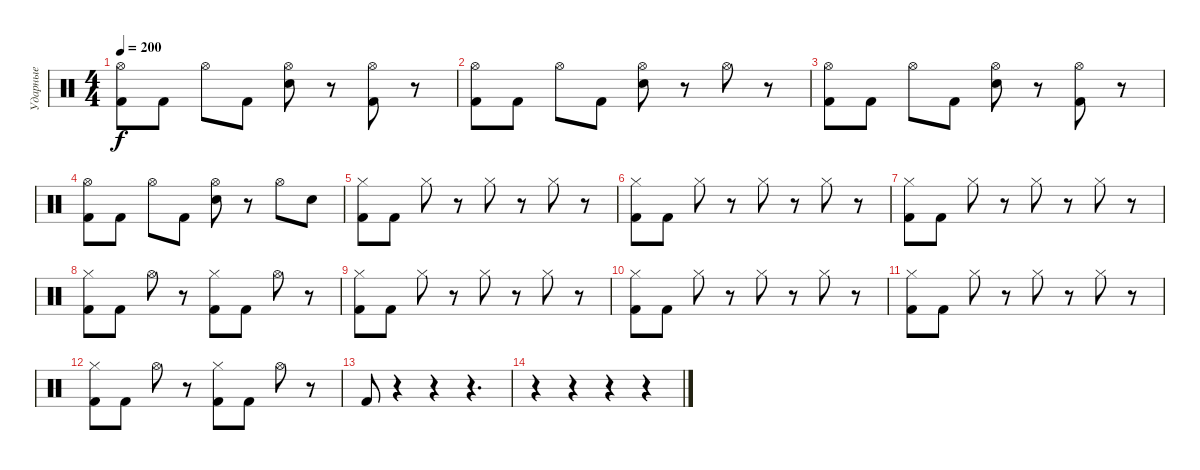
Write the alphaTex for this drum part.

\track ("Ударные" "Ударные") {instrument percussion}
\staff {score}
\articulation defaults
\ts (4 4)
\tempo 200
\clef neutral
\ks c
("Hi-Hat (open)" "Kick (hit) 2").8{dy f} "Kick (hit) 2".8 "Hi-Hat (open)".8 "Kick (hit) 2".8 ("Hi-Hat (open)" "Electric Snare (hit)").8 r.8 ("Hi-Hat (open)" "Kick (hit) 2").8 r.8 |
("Hi-Hat (open)" "Kick (hit) 2").8 "Kick (hit) 2".8 "Hi-Hat (open)".8 "Kick (hit) 2".8 ("Hi-Hat (open)" "Electric Snare (hit)").8 r.8 "Hi-Hat (open)".8 r.8 |
("Hi-Hat (open)" "Kick (hit) 2").8 "Kick (hit) 2".8 "Hi-Hat (open)".8 "Kick (hit) 2".8 ("Hi-Hat (open)" "Electric Snare (hit)").8 r.8 ("Hi-Hat (open)" "Kick (hit) 2").8 r.8 |
("Hi-Hat (open)" "Kick (hit) 2").8 "Kick (hit) 2".8 "Hi-Hat (open)".8 "Kick (hit) 2".8 ("Hi-Hat (open)" "Electric Snare (hit)").8 r.8 "Hi-Hat (open)".8 "Electric Snare (hit)".8 |
("Hi-Hat (closed)" "Kick (hit) 2").8 "Kick (hit) 2".8 "Hi-Hat (closed)".8 r.8 "Hi-Hat (closed)".8 r.8 "Hi-Hat (closed)".8 r.8 |
("Hi-Hat (closed)" "Kick (hit) 2").8 "Kick (hit) 2".8 "Hi-Hat (closed)".8 r.8 "Hi-Hat (closed)".8 r.8 "Hi-Hat (closed)".8 r.8 |
("Hi-Hat (closed)" "Kick (hit) 2").8 "Kick (hit) 2".8 "Hi-Hat (closed)".8 r.8 "Hi-Hat (closed)".8 r.8 "Hi-Hat (closed)".8 r.8 |
("Hi-Hat (closed)" "Kick (hit) 2").8 "Kick (hit) 2".8 "Hi-Hat (open)".8 r.8 ("Hi-Hat (closed)" "Kick (hit) 2").8 "Kick (hit) 2".8 "Hi-Hat (open)".8 r.8 |
("Hi-Hat (closed)" "Kick (hit) 2").8 "Kick (hit) 2".8 "Hi-Hat (closed)".8 r.8 "Hi-Hat (closed)".8 r.8 "Hi-Hat (closed)".8 r.8 |
("Hi-Hat (closed)" "Kick (hit) 2").8 "Kick (hit) 2".8 "Hi-Hat (closed)".8 r.8 "Hi-Hat (closed)".8 r.8 "Hi-Hat (closed)".8 r.8 |
("Hi-Hat (closed)" "Kick (hit) 2").8 "Kick (hit) 2".8 "Hi-Hat (closed)".8 r.8 "Hi-Hat (closed)".8 r.8 "Hi-Hat (closed)".8 r.8 |
("Hi-Hat (closed)" "Kick (hit) 2").8 "Kick (hit) 2".8 "Hi-Hat (open)".8 r.8 ("Hi-Hat (closed)" "Kick (hit) 2").8 "Kick (hit) 2".8 "Hi-Hat (open)".8 r.8 |
"Kick (hit) 2".8 r.4 r.4 r.4{d} |
r.4 r.4 r.4 r.4
